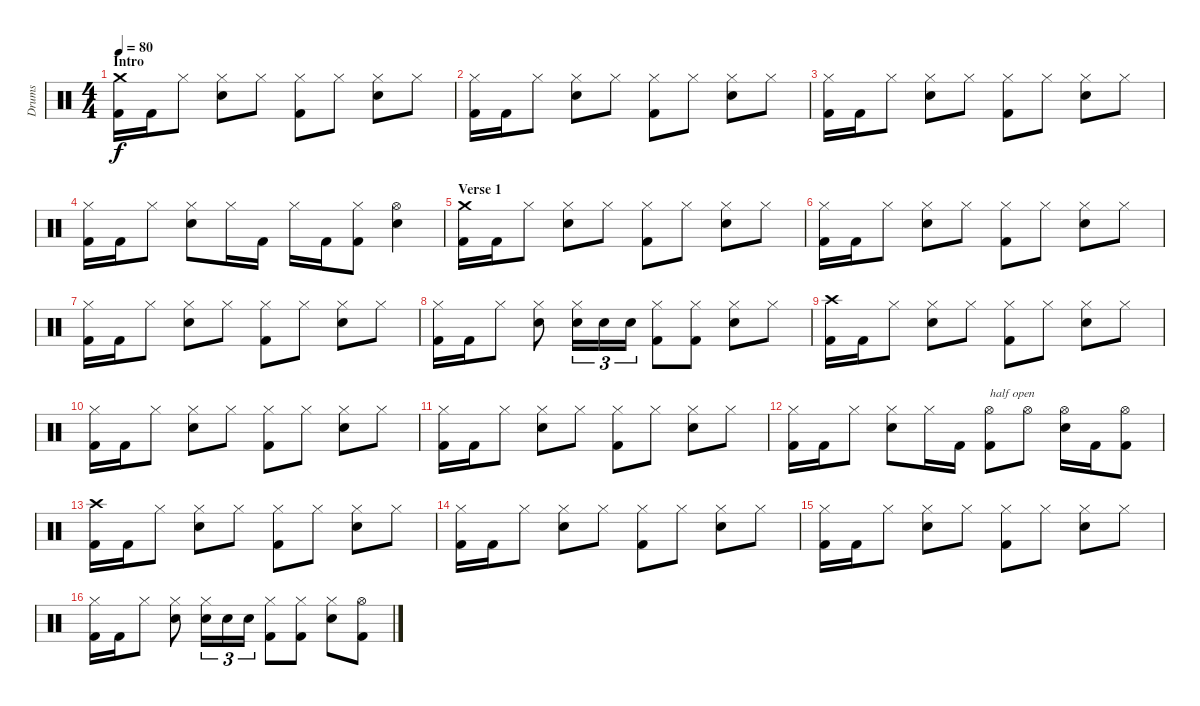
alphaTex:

\track ("Drums" "Drums") {instrument percussion}
\staff {score}
\articulation defaults
\ts (4 4)
\section ("" "Intro")
\tempo 80
\clef neutral
\ks c
("Crash medium (hit)" "Kick (hit) 2").16{dy f} "Kick (hit) 2".16 "Hi-Hat (closed)".8 ("Hi-Hat (closed)" "Electric Snare (hit)").8 "Hi-Hat (closed)".8 ("Hi-Hat (closed)" "Kick (hit) 2").8 "Hi-Hat (closed)".8 ("Hi-Hat (closed)" "Electric Snare (hit)").8 "Hi-Hat (closed)".8 |
("Hi-Hat (closed)" "Kick (hit) 2").16 "Kick (hit) 2".16 "Hi-Hat (closed)".8 ("Hi-Hat (closed)" "Electric Snare (hit)").8 "Hi-Hat (closed)".8 ("Hi-Hat (closed)" "Kick (hit) 2").8 "Hi-Hat (closed)".8 ("Hi-Hat (closed)" "Electric Snare (hit)").8 "Hi-Hat (closed)".8 |
("Hi-Hat (closed)" "Kick (hit) 2").16 "Kick (hit) 2".16 "Hi-Hat (closed)".8 ("Hi-Hat (closed)" "Electric Snare (hit)").8 "Hi-Hat (closed)".8 ("Hi-Hat (closed)" "Kick (hit) 2").8 "Hi-Hat (closed)".8 ("Hi-Hat (closed)" "Electric Snare (hit)").8 "Hi-Hat (closed)".8 |
("Hi-Hat (closed)" "Kick (hit) 2").16 "Kick (hit) 2".16 "Hi-Hat (closed)".8 ("Hi-Hat (closed)" "Electric Snare (hit)").8 "Hi-Hat (closed)".16 "Kick (hit) 2".16 "Hi-Hat (closed)".16 "Kick (hit) 2".16 ("Hi-Hat (closed)" "Kick (hit) 2").8 ("Hi-Hat (open)" "Electric Snare (hit)").4 |
\section ("" "Verse 1")
("Crash medium (hit)" "Kick (hit) 2").16 "Kick (hit) 2".16 "Hi-Hat (closed)".8 ("Hi-Hat (closed)" "Electric Snare (hit)").8 "Hi-Hat (closed)".8 ("Hi-Hat (closed)" "Kick (hit) 2").8 "Hi-Hat (closed)".8 ("Hi-Hat (closed)" "Electric Snare (hit)").8 "Hi-Hat (closed)".8 |
("Hi-Hat (closed)" "Kick (hit) 2").16 "Kick (hit) 2".16 "Hi-Hat (closed)".8 ("Hi-Hat (closed)" "Electric Snare (hit)").8 "Hi-Hat (closed)".8 ("Hi-Hat (closed)" "Kick (hit) 2").8 "Hi-Hat (closed)".8 ("Hi-Hat (closed)" "Electric Snare (hit)").8 "Hi-Hat (closed)".8 |
("Hi-Hat (closed)" "Kick (hit) 2").16 "Kick (hit) 2".16 "Hi-Hat (closed)".8 ("Hi-Hat (closed)" "Electric Snare (hit)").8 "Hi-Hat (closed)".8 ("Hi-Hat (closed)" "Kick (hit) 2").8 "Hi-Hat (closed)".8 ("Hi-Hat (closed)" "Electric Snare (hit)").8 "Hi-Hat (closed)".8 |
("Hi-Hat (closed)" "Kick (hit) 2").16 "Kick (hit) 2".16 "Hi-Hat (closed)".8 ("Hi-Hat (closed)" "Electric Snare (hit)").8 ("Hi-Hat (closed)" "Electric Snare (hit)").16{tu (3 2)} "Electric Snare (hit)".16{tu (3 2)} "Electric Snare (hit)".16{tu (3 2)} ("Hi-Hat (closed)" "Kick (hit) 2").8 ("Hi-Hat (closed)" "Kick (hit) 2").8 ("Hi-Hat (closed)" "Electric Snare (hit)").8 "Hi-Hat (closed)".8 |
("Crash high (hit)" "Kick (hit) 2").16 "Kick (hit) 2".16 "Hi-Hat (closed)".8 ("Hi-Hat (closed)" "Electric Snare (hit)").8 "Hi-Hat (closed)".8 ("Hi-Hat (closed)" "Kick (hit) 2").8 "Hi-Hat (closed)".8 ("Hi-Hat (closed)" "Electric Snare (hit)").8 "Hi-Hat (closed)".8 |
("Hi-Hat (closed)" "Kick (hit) 2").16 "Kick (hit) 2".16 "Hi-Hat (closed)".8 ("Hi-Hat (closed)" "Electric Snare (hit)").8 "Hi-Hat (closed)".8 ("Hi-Hat (closed)" "Kick (hit) 2").8 "Hi-Hat (closed)".8 ("Hi-Hat (closed)" "Electric Snare (hit)").8 "Hi-Hat (closed)".8 |
("Hi-Hat (closed)" "Kick (hit) 2").16 "Kick (hit) 2".16 "Hi-Hat (closed)".8 ("Hi-Hat (closed)" "Electric Snare (hit)").8 "Hi-Hat (closed)".8 ("Hi-Hat (closed)" "Kick (hit) 2").8 "Hi-Hat (closed)".8 ("Hi-Hat (closed)" "Electric Snare (hit)").8 "Hi-Hat (closed)".8 |
("Hi-Hat (closed)" "Kick (hit) 2").16 "Kick (hit) 2".16 "Hi-Hat (closed)".8 ("Hi-Hat (closed)" "Electric Snare (hit)").8 "Hi-Hat (closed)".16 "Kick (hit) 2".16 ("Hi-Hat (open)" "Kick (hit) 2").8{txt "half open"} "Hi-Hat (open)".8 ("Hi-Hat (open)" "Electric Snare (hit)").16 "Kick (hit) 2".16 ("Hi-Hat (open)" "Kick (hit) 2").8 |
("Crash high (hit)" "Kick (hit) 2").16 "Kick (hit) 2".16 "Hi-Hat (closed)".8 ("Hi-Hat (closed)" "Electric Snare (hit)").8 "Hi-Hat (closed)".8 ("Hi-Hat (closed)" "Kick (hit) 2").8 "Hi-Hat (closed)".8 ("Hi-Hat (closed)" "Electric Snare (hit)").8 "Hi-Hat (closed)".8 |
("Hi-Hat (closed)" "Kick (hit) 2").16 "Kick (hit) 2".16 "Hi-Hat (closed)".8 ("Hi-Hat (closed)" "Electric Snare (hit)").8 "Hi-Hat (closed)".8 ("Hi-Hat (closed)" "Kick (hit) 2").8 "Hi-Hat (closed)".8 ("Hi-Hat (closed)" "Electric Snare (hit)").8 "Hi-Hat (closed)".8 |
("Hi-Hat (closed)" "Kick (hit) 2").16 "Kick (hit) 2".16 "Hi-Hat (closed)".8 ("Hi-Hat (closed)" "Electric Snare (hit)").8 "Hi-Hat (closed)".8 ("Hi-Hat (closed)" "Kick (hit) 2").8 "Hi-Hat (closed)".8 ("Hi-Hat (closed)" "Electric Snare (hit)").8 "Hi-Hat (closed)".8 |
("Hi-Hat (closed)" "Kick (hit) 2").16 "Kick (hit) 2".16 "Hi-Hat (closed)".8 ("Hi-Hat (closed)" "Electric Snare (hit)").8 ("Hi-Hat (closed)" "Electric Snare (hit)").16{tu (3 2)} "Electric Snare (hit)".16{tu (3 2)} "Electric Snare (hit)".16{tu (3 2)} ("Hi-Hat (closed)" "Kick (hit) 2").8 ("Hi-Hat (closed)" "Kick (hit) 2").8 ("Hi-Hat (closed)" "Electric Snare (hit)").8 ("Hi-Hat (open)" "Kick (hit) 2").8
